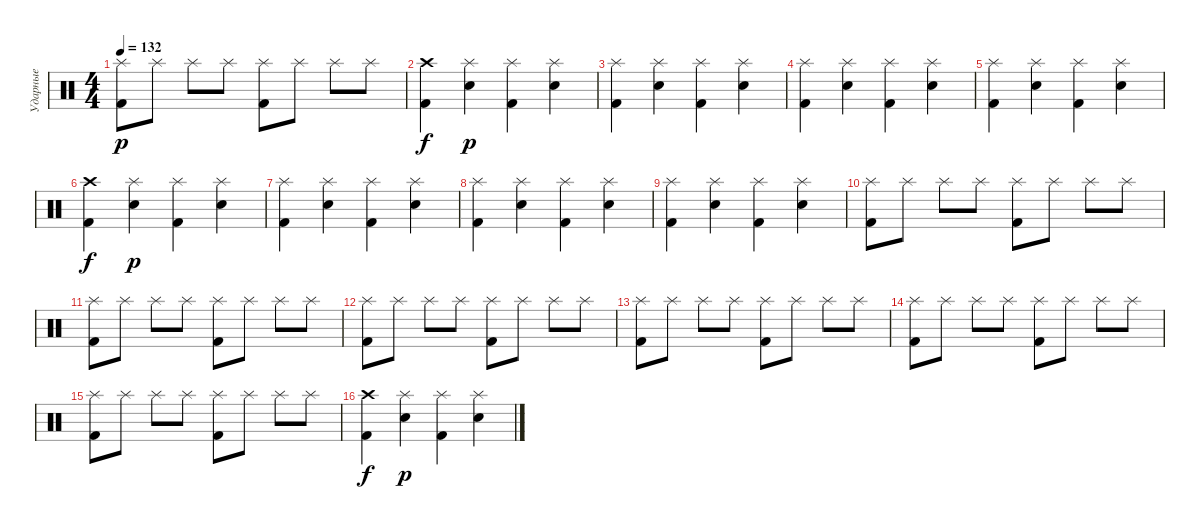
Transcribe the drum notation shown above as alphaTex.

\track ("Ударные" "Ударные") {instrument percussion}
\staff {score}
\articulation defaults
\ts (4 4)
\tempo 132
\clef neutral
\ks c
("Splash (hit)" "Kick (hit) 2").8{dy p} "Splash (hit)".8 "Splash (hit)".8 "Splash (hit)".8 ("Splash (hit)" "Kick (hit) 2").8 "Splash (hit)".8 "Splash (hit)".8 "Splash (hit)".8 |
("Crash high (hit)" "Kick (hit) 2").4{dy f} ("Splash (hit)" "Electric Snare (hit)").4{dy p} ("Splash (hit)" "Kick (hit) 2").4 ("Splash (hit)" "Electric Snare (hit)").4 |
("Splash (hit)" "Kick (hit) 2").4 ("Splash (hit)" "Electric Snare (hit)").4 ("Splash (hit)" "Kick (hit) 2").4 ("Splash (hit)" "Electric Snare (hit)").4 |
("Splash (hit)" "Kick (hit) 2").4 ("Splash (hit)" "Electric Snare (hit)").4 ("Splash (hit)" "Kick (hit) 2").4 ("Splash (hit)" "Electric Snare (hit)").4 |
("Splash (hit)" "Kick (hit) 2").4 ("Splash (hit)" "Electric Snare (hit)").4 ("Splash (hit)" "Kick (hit) 2").4 ("Splash (hit)" "Electric Snare (hit)").4 |
("Crash high (hit)" "Kick (hit) 2").4{dy f} ("Splash (hit)" "Electric Snare (hit)").4{dy p} ("Splash (hit)" "Kick (hit) 2").4 ("Splash (hit)" "Electric Snare (hit)").4 |
("Splash (hit)" "Kick (hit) 2").4 ("Splash (hit)" "Electric Snare (hit)").4 ("Splash (hit)" "Kick (hit) 2").4 ("Splash (hit)" "Electric Snare (hit)").4 |
("Splash (hit)" "Kick (hit) 2").4 ("Splash (hit)" "Electric Snare (hit)").4 ("Splash (hit)" "Kick (hit) 2").4 ("Splash (hit)" "Electric Snare (hit)").4 |
("Splash (hit)" "Kick (hit) 2").4 ("Splash (hit)" "Electric Snare (hit)").4 ("Splash (hit)" "Kick (hit) 2").4 ("Splash (hit)" "Electric Snare (hit)").4 |
("Splash (hit)" "Kick (hit) 2").8 "Splash (hit)".8 "Splash (hit)".8 "Splash (hit)".8 ("Splash (hit)" "Kick (hit) 2").8 "Splash (hit)".8 "Splash (hit)".8 "Splash (hit)".8 |
("Splash (hit)" "Kick (hit) 2").8 "Splash (hit)".8 "Splash (hit)".8 "Splash (hit)".8 ("Splash (hit)" "Kick (hit) 2").8 "Splash (hit)".8 "Splash (hit)".8 "Splash (hit)".8 |
("Splash (hit)" "Kick (hit) 2").8 "Splash (hit)".8 "Splash (hit)".8 "Splash (hit)".8 ("Splash (hit)" "Kick (hit) 2").8 "Splash (hit)".8 "Splash (hit)".8 "Splash (hit)".8 |
("Splash (hit)" "Kick (hit) 2").8 "Splash (hit)".8 "Splash (hit)".8 "Splash (hit)".8 ("Splash (hit)" "Kick (hit) 2").8 "Splash (hit)".8 "Splash (hit)".8 "Splash (hit)".8 |
("Splash (hit)" "Kick (hit) 2").8 "Splash (hit)".8 "Splash (hit)".8 "Splash (hit)".8 ("Splash (hit)" "Kick (hit) 2").8 "Splash (hit)".8 "Splash (hit)".8 "Splash (hit)".8 |
("Splash (hit)" "Kick (hit) 2").8 "Splash (hit)".8 "Splash (hit)".8 "Splash (hit)".8 ("Splash (hit)" "Kick (hit) 2").8 "Splash (hit)".8 "Splash (hit)".8 "Splash (hit)".8 |
("Crash high (hit)" "Kick (hit) 2").4{dy f} ("Splash (hit)" "Electric Snare (hit)").4{dy p} ("Splash (hit)" "Kick (hit) 2").4 ("Splash (hit)" "Electric Snare (hit)").4
